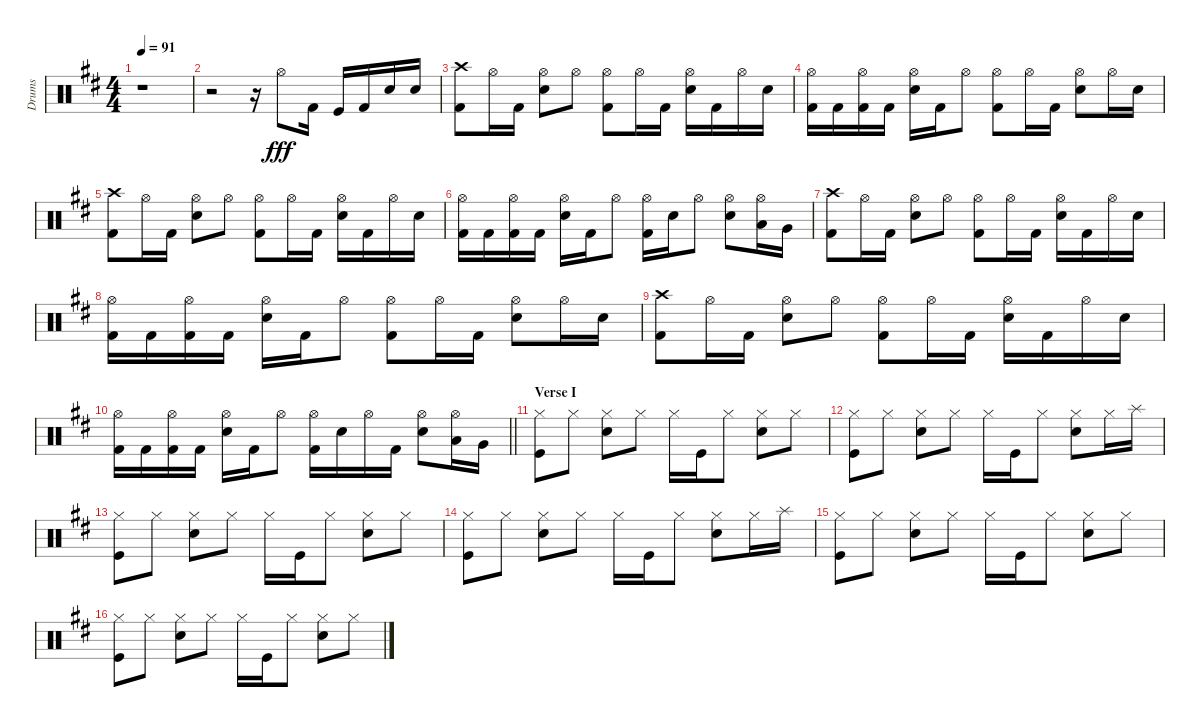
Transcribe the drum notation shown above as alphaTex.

\track ("Drums" "Drums") {instrument percussion}
\staff {score}
\articulation defaults
\ts (4 4)
\tempo 91
\clef neutral
\ks d
r.1{dy fff} |
r.2 r.16 "Hi-Hat (open)".8 "Kick (hit) 2".16 "Kick (hit)".16 "Kick (hit) 2".16 "Snare (hit) 2".16 "Snare (hit) 2".16 |
("Crash high (hit)" "Kick (hit) 2").8 "Hi-Hat (open)".16 "Kick (hit) 2".16 ("Hi-Hat (open)" "Snare (hit) 2").8 "Hi-Hat (open)".8 ("Hi-Hat (open)" "Kick (hit) 2").8 "Hi-Hat (open)".16 "Kick (hit) 2".16 ("Hi-Hat (open)" "Snare (hit) 2").16 "Kick (hit) 2".16 "Hi-Hat (open)".16 "Snare (hit) 2".16 |
("Hi-Hat (open)" "Kick (hit) 2").16 "Kick (hit) 2".16 ("Hi-Hat (open)" "Kick (hit) 2").16 "Kick (hit) 2".16 ("Hi-Hat (open)" "Snare (hit) 2").16 "Kick (hit) 2".16 "Hi-Hat (open)".8 ("Hi-Hat (open)" "Kick (hit) 2").8 "Hi-Hat (open)".16 "Kick (hit) 2".16 ("Hi-Hat (open)" "Snare (hit) 2").8 "Hi-Hat (open)".16 "Snare (hit) 2".16 |
("Crash high (hit)" "Kick (hit) 2").8 "Hi-Hat (open)".16 "Kick (hit) 2".16 ("Hi-Hat (open)" "Snare (hit) 2").8 "Hi-Hat (open)".8 ("Hi-Hat (open)" "Kick (hit) 2").8 "Hi-Hat (open)".16 "Kick (hit) 2".16 ("Hi-Hat (open)" "Snare (hit) 2").16 "Kick (hit) 2".16 "Hi-Hat (open)".16 "Snare (hit) 2".16 |
("Hi-Hat (open)" "Kick (hit) 2").16 "Kick (hit) 2".16 ("Hi-Hat (open)" "Kick (hit) 2").16 "Kick (hit) 2".16 ("Hi-Hat (open)" "Snare (hit) 2").16 "Kick (hit) 2".16 "Hi-Hat (open)".8 ("Hi-Hat (open)" "Kick (hit) 2").16 "Snare (hit) 2".16 "Hi-Hat (open)".8 ("Hi-Hat (open)" "Snare (hit) 2").8 ("Hi-Hat (open)" "Low Tom (hit)").16 "Very Low Tom (hit)".16 |
("Crash high (hit)" "Kick (hit) 2").8 "Hi-Hat (open)".16 "Kick (hit) 2".16 ("Hi-Hat (open)" "Snare (hit) 2").8 "Hi-Hat (open)".8 ("Hi-Hat (open)" "Kick (hit) 2").8 "Hi-Hat (open)".16 "Kick (hit) 2".16 ("Hi-Hat (open)" "Snare (hit) 2").16 "Kick (hit) 2".16 "Hi-Hat (open)".16 "Snare (hit) 2".16 |
("Hi-Hat (open)" "Kick (hit) 2").16 "Kick (hit) 2".16 ("Hi-Hat (open)" "Kick (hit) 2").16 "Kick (hit) 2".16 ("Hi-Hat (open)" "Snare (hit) 2").16 "Kick (hit) 2".16 "Hi-Hat (open)".8 ("Hi-Hat (open)" "Kick (hit) 2").8 "Hi-Hat (open)".16 "Kick (hit) 2".16 ("Hi-Hat (open)" "Snare (hit) 2").8 "Hi-Hat (open)".16 "Snare (hit) 2".16 |
("Crash high (hit)" "Kick (hit) 2").8 "Hi-Hat (open)".16 "Kick (hit) 2".16 ("Hi-Hat (open)" "Snare (hit) 2").8 "Hi-Hat (open)".8 ("Hi-Hat (open)" "Kick (hit) 2").8 "Hi-Hat (open)".16 "Kick (hit) 2".16 ("Hi-Hat (open)" "Snare (hit) 2").16 "Kick (hit) 2".16 "Hi-Hat (open)".16 "Snare (hit) 2".16 |
\barLineRight lightlight
("Hi-Hat (open)" "Kick (hit) 2").16 "Kick (hit) 2".16 ("Hi-Hat (open)" "Kick (hit) 2").16 "Kick (hit) 2".16 ("Hi-Hat (open)" "Snare (hit) 2").16 "Kick (hit) 2".16 "Hi-Hat (open)".8 ("Hi-Hat (open)" "Kick (hit) 2").16 "Snare (hit) 2".16 "Hi-Hat (open)".16 "Kick (hit) 2".16 ("Hi-Hat (open)" "Snare (hit) 2").8 ("Hi-Hat (open)" "Low Tom (hit)").16 "Very Low Tom (hit)".16 |
\section ("" "Verse I")
("Hi-Hat (closed)" "Kick (hit)").8 "Hi-Hat (closed)".8 ("Hi-Hat (closed)" "Snare (hit) 2").8 "Hi-Hat (closed)".8 "Hi-Hat (closed)".16 "Kick (hit)".16 "Hi-Hat (closed)".8 ("Hi-Hat (closed)" "Snare (hit) 2").8 "Hi-Hat (closed)".8 |
("Hi-Hat (closed)" "Kick (hit)").8 "Hi-Hat (closed)".8 ("Hi-Hat (closed)" "Snare (hit) 2").8 "Hi-Hat (closed)".8 "Hi-Hat (closed)".16 "Kick (hit)".16 "Hi-Hat (closed)".8 ("Hi-Hat (closed)" "Snare (hit) 2").8 "Hi-Hat (closed)".16 "Splash (hit)".16 |
("Hi-Hat (closed)" "Kick (hit)").8 "Hi-Hat (closed)".8 ("Hi-Hat (closed)" "Snare (hit) 2").8 "Hi-Hat (closed)".8 "Hi-Hat (closed)".16 "Kick (hit)".16 "Hi-Hat (closed)".8 ("Hi-Hat (closed)" "Snare (hit) 2").8 "Hi-Hat (closed)".8 |
("Hi-Hat (closed)" "Kick (hit)").8 "Hi-Hat (closed)".8 ("Hi-Hat (closed)" "Snare (hit) 2").8 "Hi-Hat (closed)".8 "Hi-Hat (closed)".16 "Kick (hit)".16 "Hi-Hat (closed)".8 ("Hi-Hat (closed)" "Snare (hit) 2").8 "Hi-Hat (closed)".16 "Splash (hit)".16 |
("Hi-Hat (closed)" "Kick (hit)").8 "Hi-Hat (closed)".8 ("Hi-Hat (closed)" "Snare (hit) 2").8 "Hi-Hat (closed)".8 "Hi-Hat (closed)".16 "Kick (hit)".16 "Hi-Hat (closed)".8 ("Hi-Hat (closed)" "Snare (hit) 2").8 "Hi-Hat (closed)".8 |
("Hi-Hat (closed)" "Kick (hit)").8 "Hi-Hat (closed)".8 ("Hi-Hat (closed)" "Snare (hit) 2").8 "Hi-Hat (closed)".8 "Hi-Hat (closed)".16 "Kick (hit)".16 "Hi-Hat (closed)".8 ("Hi-Hat (closed)" "Snare (hit) 2").8 "Hi-Hat (closed)".8
